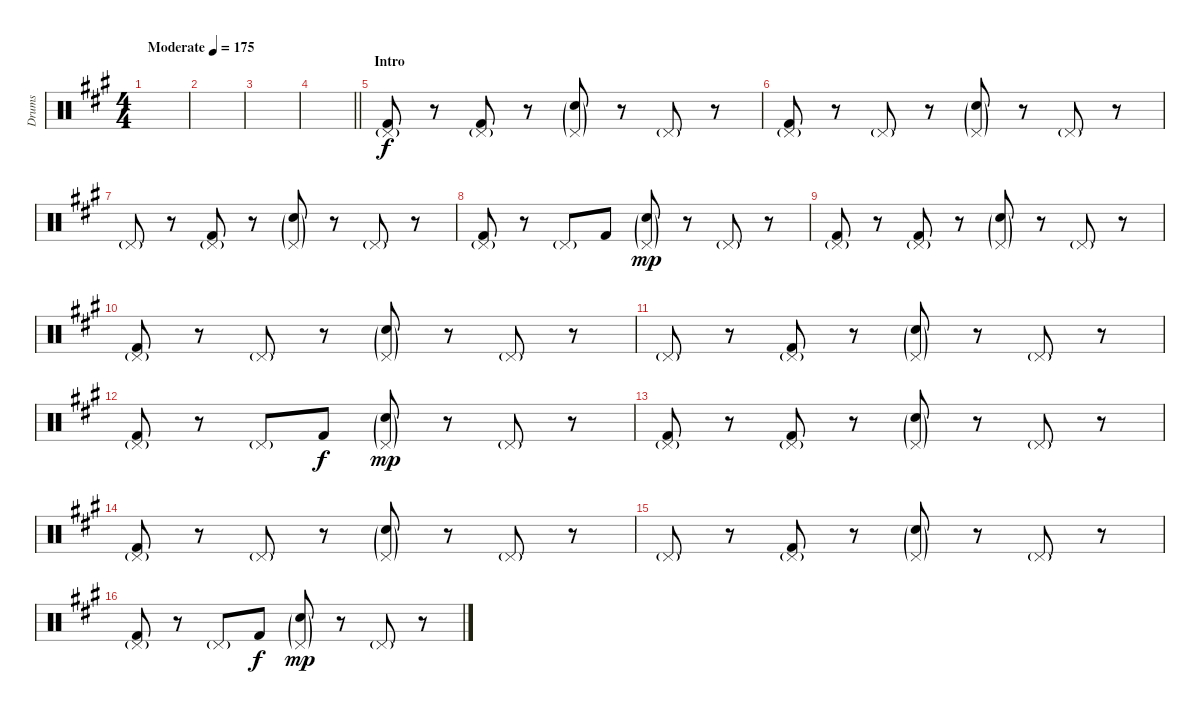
\track ("Drums" "Drums") {instrument percussion}
\staff {score}
\articulation defaults
\ts (4 4)
\tempo (175 "Moderate")
\clef neutral
\ks f#minor
|
|
|
\barLineRight lightlight
|
\section ("" "Intro")
("Pedal Hi-Hat (hit)"{g} "Kick (hit) 2").8 r.8 ("Pedal Hi-Hat (hit)"{g} "Kick (hit) 2").8 r.8 ("Pedal Hi-Hat (hit)"{g} "Snare (hit) 2"{g}).8 r.8 "Pedal Hi-Hat (hit)"{g}.8 r.8 |
("Pedal Hi-Hat (hit)"{g} "Kick (hit) 2").8 r.8 "Pedal Hi-Hat (hit)"{g}.8 r.8 ("Pedal Hi-Hat (hit)"{g} "Snare (hit) 2"{g}).8 r.8 "Pedal Hi-Hat (hit)"{g}.8 r.8 |
"Pedal Hi-Hat (hit)"{g}.8 r.8 ("Pedal Hi-Hat (hit)"{g} "Kick (hit) 2").8 r.8 ("Pedal Hi-Hat (hit)"{g} "Snare (hit) 2"{g}).8 r.8 "Pedal Hi-Hat (hit)"{g}.8 r.8 |
("Pedal Hi-Hat (hit)"{g} "Kick (hit) 2").8 r.8 "Pedal Hi-Hat (hit)"{g}.8 "Kick (hit) 2".8{dy f} ("Pedal Hi-Hat (hit)"{g} "Snare (hit) 2"{g}).8{dy mp} r.8 "Pedal Hi-Hat (hit)"{g}.8 r.8 |
("Pedal Hi-Hat (hit)"{g} "Kick (hit) 2").8 r.8 ("Pedal Hi-Hat (hit)"{g} "Kick (hit) 2").8 r.8 ("Pedal Hi-Hat (hit)"{g} "Snare (hit) 2"{g}).8 r.8 "Pedal Hi-Hat (hit)"{g}.8 r.8 |
("Pedal Hi-Hat (hit)"{g} "Kick (hit) 2").8 r.8 "Pedal Hi-Hat (hit)"{g}.8 r.8 ("Pedal Hi-Hat (hit)"{g} "Snare (hit) 2"{g}).8 r.8 "Pedal Hi-Hat (hit)"{g}.8 r.8 |
"Pedal Hi-Hat (hit)"{g}.8 r.8 ("Pedal Hi-Hat (hit)"{g} "Kick (hit) 2").8 r.8 ("Pedal Hi-Hat (hit)"{g} "Snare (hit) 2"{g}).8 r.8 "Pedal Hi-Hat (hit)"{g}.8 r.8 |
("Pedal Hi-Hat (hit)"{g} "Kick (hit) 2").8 r.8 "Pedal Hi-Hat (hit)"{g}.8 "Kick (hit) 2".8{dy f} ("Pedal Hi-Hat (hit)"{g} "Snare (hit) 2"{g}).8{dy mp} r.8 "Pedal Hi-Hat (hit)"{g}.8 r.8 |
("Pedal Hi-Hat (hit)"{g} "Kick (hit) 2").8 r.8 ("Pedal Hi-Hat (hit)"{g} "Kick (hit) 2").8 r.8 ("Pedal Hi-Hat (hit)"{g} "Snare (hit) 2"{g}).8 r.8 "Pedal Hi-Hat (hit)"{g}.8 r.8 |
("Pedal Hi-Hat (hit)"{g} "Kick (hit) 2").8 r.8 "Pedal Hi-Hat (hit)"{g}.8 r.8 ("Pedal Hi-Hat (hit)"{g} "Snare (hit) 2"{g}).8 r.8 "Pedal Hi-Hat (hit)"{g}.8 r.8 |
"Pedal Hi-Hat (hit)"{g}.8 r.8 ("Pedal Hi-Hat (hit)"{g} "Kick (hit) 2").8 r.8 ("Pedal Hi-Hat (hit)"{g} "Snare (hit) 2"{g}).8 r.8 "Pedal Hi-Hat (hit)"{g}.8 r.8 |
("Pedal Hi-Hat (hit)"{g} "Kick (hit) 2").8 r.8 "Pedal Hi-Hat (hit)"{g}.8 "Kick (hit) 2".8{dy f} ("Pedal Hi-Hat (hit)"{g} "Snare (hit) 2"{g}).8{dy mp} r.8 "Pedal Hi-Hat (hit)"{g}.8 r.8
